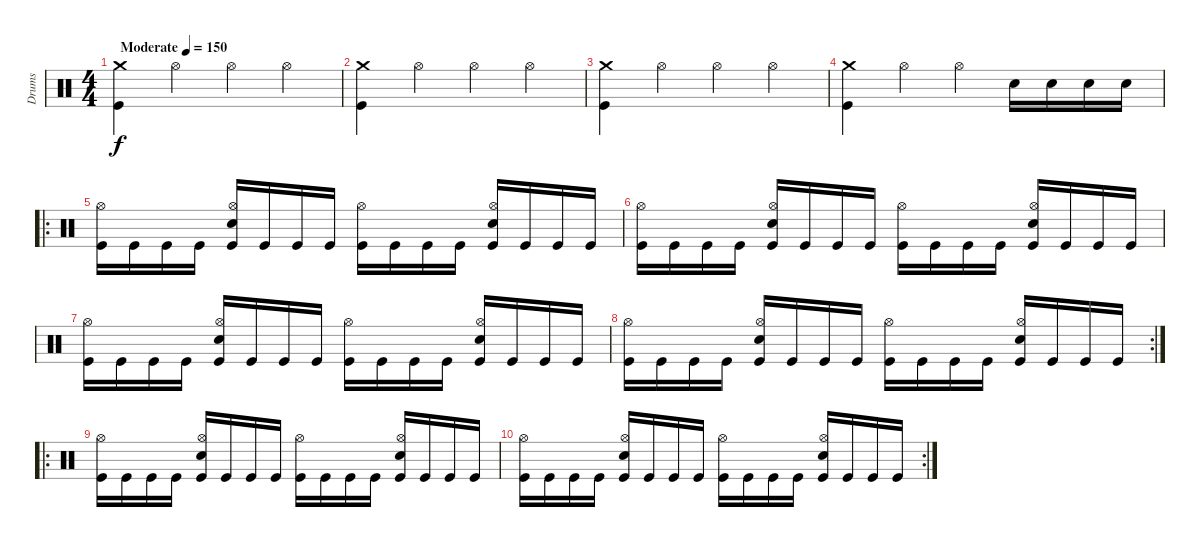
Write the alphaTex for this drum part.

\track ("Drums" "Drums") {instrument percussion}
\staff {score}
\articulation defaults
\ts (4 4)
\tempo (150 "Moderate")
\clef neutral
\ks c
("Crash medium (hit)" "Kick (hit)").4{dy f} "Hi-Hat (open)".4 "Hi-Hat (open)".4 "Hi-Hat (open)".4 |
("Crash medium (hit)" "Kick (hit)").4 "Hi-Hat (open)".4 "Hi-Hat (open)".4 "Hi-Hat (open)".4 |
("Crash medium (hit)" "Kick (hit)").4 "Hi-Hat (open)".4 "Hi-Hat (open)".4 "Hi-Hat (open)".4 |
("Crash medium (hit)" "Kick (hit)").4 "Hi-Hat (open)".4 "Hi-Hat (open)".4 "Snare (hit) 2".16 "Snare (hit) 2".16 "Snare (hit) 2".16 "Snare (hit) 2".16 |
\ro
("Hi-Hat (open)" "Kick (hit)").16 "Kick (hit)".16 "Kick (hit)".16 "Kick (hit)".16 ("Hi-Hat (open)" "Snare (hit) 2" "Kick (hit)").16 "Kick (hit)".16 "Kick (hit)".16 "Kick (hit)".16 ("Hi-Hat (open)" "Kick (hit)").16 "Kick (hit)".16 "Kick (hit)".16 "Kick (hit)".16 ("Hi-Hat (open)" "Snare (hit) 2" "Kick (hit)").16 "Kick (hit)".16 "Kick (hit)".16 "Kick (hit)".16 |
("Hi-Hat (open)" "Kick (hit)").16 "Kick (hit)".16 "Kick (hit)".16 "Kick (hit)".16 ("Hi-Hat (open)" "Snare (hit) 2" "Kick (hit)").16 "Kick (hit)".16 "Kick (hit)".16 "Kick (hit)".16 ("Hi-Hat (open)" "Kick (hit)").16 "Kick (hit)".16 "Kick (hit)".16 "Kick (hit)".16 ("Hi-Hat (open)" "Snare (hit) 2" "Kick (hit)").16 "Kick (hit)".16 "Kick (hit)".16 "Kick (hit)".16 |
("Hi-Hat (open)" "Kick (hit)").16 "Kick (hit)".16 "Kick (hit)".16 "Kick (hit)".16 ("Hi-Hat (open)" "Snare (hit) 2" "Kick (hit)").16 "Kick (hit)".16 "Kick (hit)".16 "Kick (hit)".16 ("Hi-Hat (open)" "Kick (hit)").16 "Kick (hit)".16 "Kick (hit)".16 "Kick (hit)".16 ("Hi-Hat (open)" "Snare (hit) 2" "Kick (hit)").16 "Kick (hit)".16 "Kick (hit)".16 "Kick (hit)".16 |
\rc 2
("Hi-Hat (open)" "Kick (hit)").16 "Kick (hit)".16 "Kick (hit)".16 "Kick (hit)".16 ("Hi-Hat (open)" "Snare (hit) 2" "Kick (hit)").16 "Kick (hit)".16 "Kick (hit)".16 "Kick (hit)".16 ("Hi-Hat (open)" "Kick (hit)").16 "Kick (hit)".16 "Kick (hit)".16 "Kick (hit)".16 ("Hi-Hat (open)" "Snare (hit) 2" "Kick (hit)").16 "Kick (hit)".16 "Kick (hit)".16 "Kick (hit)".16 |
\ro
("Hi-Hat (open)" "Kick (hit)").16 "Kick (hit)".16 "Kick (hit)".16 "Kick (hit)".16 ("Hi-Hat (open)" "Snare (hit) 2" "Kick (hit)").16 "Kick (hit)".16 "Kick (hit)".16 "Kick (hit)".16 ("Hi-Hat (open)" "Kick (hit)").16 "Kick (hit)".16 "Kick (hit)".16 "Kick (hit)".16 ("Hi-Hat (open)" "Snare (hit) 2" "Kick (hit)").16 "Kick (hit)".16 "Kick (hit)".16 "Kick (hit)".16 |
\rc 2
("Hi-Hat (open)" "Kick (hit)").16 "Kick (hit)".16 "Kick (hit)".16 "Kick (hit)".16 ("Hi-Hat (open)" "Snare (hit) 2" "Kick (hit)").16 "Kick (hit)".16 "Kick (hit)".16 "Kick (hit)".16 ("Hi-Hat (open)" "Kick (hit)").16 "Kick (hit)".16 "Kick (hit)".16 "Kick (hit)".16 ("Hi-Hat (open)" "Snare (hit) 2" "Kick (hit)").16 "Kick (hit)".16 "Kick (hit)".16 "Kick (hit)".16
